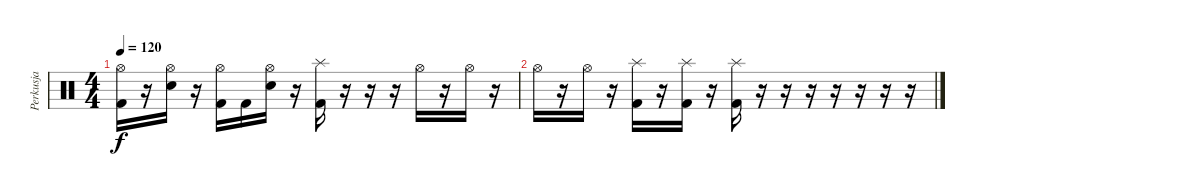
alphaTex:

\track ("Perkusja" "Perkusja") {instrument percussion}
\staff {score}
\articulation defaults
\ts (4 4)
\tempo 120
\clef neutral
\ks c
("Hi-Hat (open)" "Kick (hit) 2").16{dy f} r.16 ("Hi-Hat (open)" "Electric Snare (hit)").16 r.16 ("Hi-Hat (open)" "Kick (hit) 2").16 "Kick (hit) 2".16 ("Hi-Hat (open)" "Electric Snare (hit)").16 r.16 ("Splash (hit)" "Kick (hit) 2").16 r.16 r.16 r.16 "Hi-Hat (open)".16 r.16 "Hi-Hat (open)".16 r.16 |
"Hi-Hat (open)".16 r.16 "Hi-Hat (open)".16 r.16 ("Splash (hit)" "Kick (hit) 2").16 r.16 ("Splash (hit)" "Kick (hit) 2").16 r.16 ("Splash (hit)" "Kick (hit) 2").16 r.16 r.16 r.16 r.16 r.16 r.16 r.16
